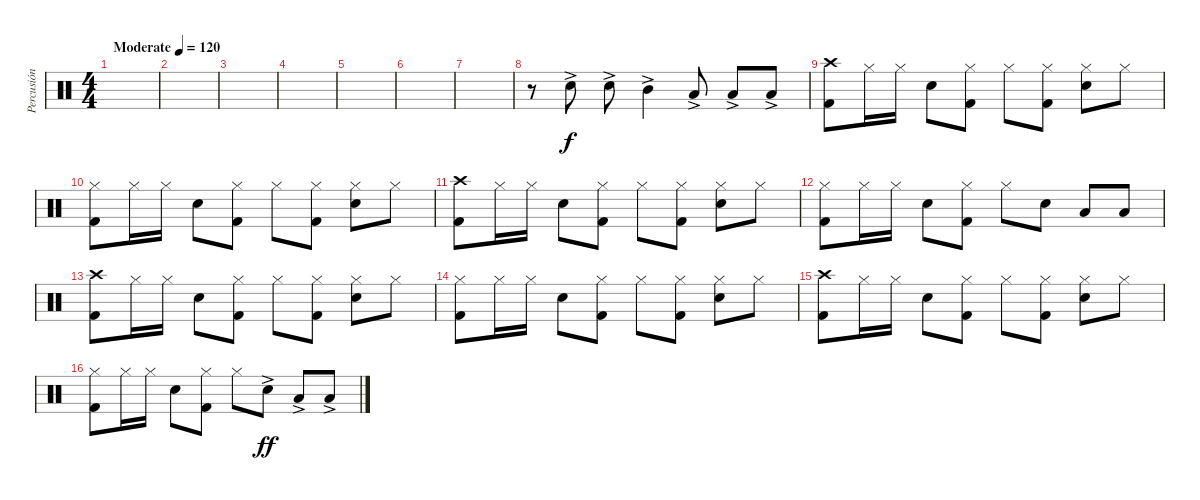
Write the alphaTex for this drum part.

\track ("Percusión" "Percusión") {instrument percussion}
\staff {score}
\articulation defaults
\ts (4 4)
\tempo (120 "Moderate")
\clef neutral
\ks c
|
|
|
|
|
|
|
r.8 "Snare (hit) 2"{ac}.8 "Snare (hit) 2"{ac}.8 "Mid Tom (hit)"{ac}.4 "Low Tom (hit)"{ac}.8 "Low Tom (hit)"{ac}.8 "Low Floor Tom (hit)"{ac}.8 |
("Crash high (hit)" "Kick (hit) 2").8{dy f} "Hi-Hat (closed)".16 "Hi-Hat (closed)".16 "Snare (hit) 2".8 ("Hi-Hat (closed)" "Kick (hit) 2").8 "Hi-Hat (closed)".8 ("Hi-Hat (closed)" "Kick (hit) 2").8 ("Hi-Hat (closed)" "Snare (hit) 2").8 "Hi-Hat (closed)".8 |
("Hi-Hat (closed)" "Kick (hit) 2").8 "Hi-Hat (closed)".16 "Hi-Hat (closed)".16 "Snare (hit) 2".8 ("Hi-Hat (closed)" "Kick (hit) 2").8 "Hi-Hat (closed)".8 ("Hi-Hat (closed)" "Kick (hit) 2").8 ("Hi-Hat (closed)" "Snare (hit) 2").8 "Hi-Hat (closed)".8 |
("Crash high (hit)" "Kick (hit) 2").8 "Hi-Hat (closed)".16 "Hi-Hat (closed)".16 "Snare (hit) 2".8 ("Hi-Hat (closed)" "Kick (hit) 2").8 "Hi-Hat (closed)".8 ("Hi-Hat (closed)" "Kick (hit) 2").8 ("Hi-Hat (closed)" "Snare (hit) 2").8 "Hi-Hat (closed)".8 |
("Hi-Hat (closed)" "Kick (hit) 2").8 "Hi-Hat (closed)".16 "Hi-Hat (closed)".16 "Snare (hit) 2".8 ("Hi-Hat (closed)" "Kick (hit) 2").8 "Hi-Hat (closed)".8 "Snare (hit) 2".8 "Low Tom (hit)".8 "Low Floor Tom (hit)".8 |
("Crash high (hit)" "Kick (hit) 2").8 "Hi-Hat (closed)".16 "Hi-Hat (closed)".16 "Snare (hit) 2".8 ("Hi-Hat (closed)" "Kick (hit) 2").8 "Hi-Hat (closed)".8 ("Hi-Hat (closed)" "Kick (hit) 2").8 ("Hi-Hat (closed)" "Snare (hit) 2").8 "Hi-Hat (closed)".8 |
("Hi-Hat (closed)" "Kick (hit) 2").8 "Hi-Hat (closed)".16 "Hi-Hat (closed)".16 "Snare (hit) 2".8 ("Hi-Hat (closed)" "Kick (hit) 2").8 "Hi-Hat (closed)".8 ("Hi-Hat (closed)" "Kick (hit) 2").8 ("Hi-Hat (closed)" "Snare (hit) 2").8 "Hi-Hat (closed)".8 |
("Crash high (hit)" "Kick (hit) 2").8 "Hi-Hat (closed)".16 "Hi-Hat (closed)".16 "Snare (hit) 2".8 ("Hi-Hat (closed)" "Kick (hit) 2").8 "Hi-Hat (closed)".8 ("Hi-Hat (closed)" "Kick (hit) 2").8 ("Hi-Hat (closed)" "Snare (hit) 2").8 "Hi-Hat (closed)".8 |
("Hi-Hat (closed)" "Kick (hit) 2").8 "Hi-Hat (closed)".16 "Hi-Hat (closed)".16 "Snare (hit) 2".8 ("Hi-Hat (closed)" "Kick (hit) 2").8 "Hi-Hat (closed)".8 "Snare (hit) 2"{ac}.8{dy ff} "Low Tom (hit)"{ac}.8 "Low Floor Tom (hit)"{ac}.8
